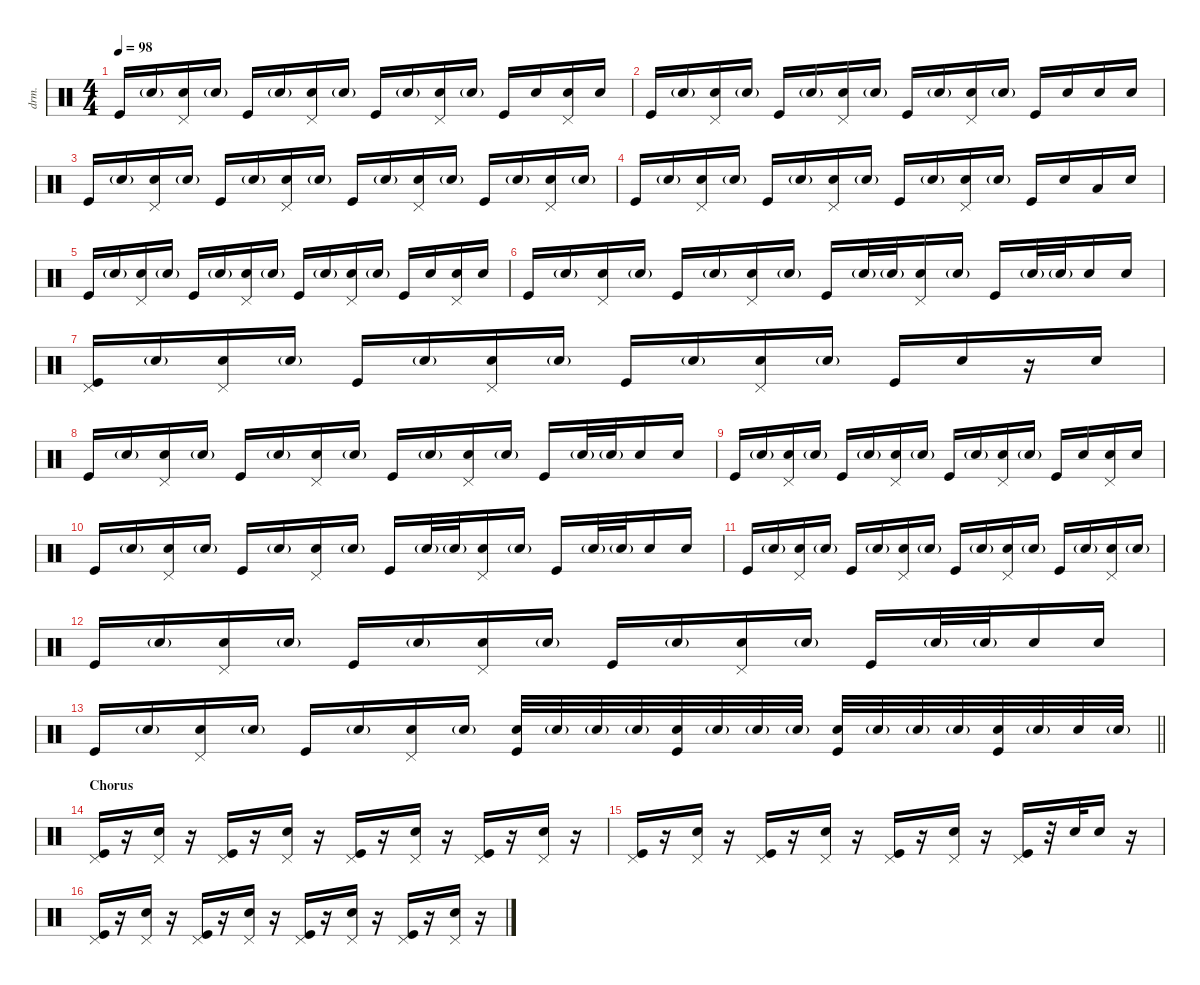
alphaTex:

\defaultSystemsLayout 4
\hideDynamics
\bracketExtendMode nobrackets
\otherSystemsTrackNameOrientation horizontal
\track ("Duris Maxwell" "drm.") {instrument percussion}
\staff {score}
\articulation defaults
\ts (4 4)
\tempo 98
\clef neutral
\ks c "Kick (hit)".16{dy f beam Up} "Snare (hit) 2"{g}.16{beam Up}
("Pedal Hi-Hat (hit)" "Snare (hit) 2").16{beam Up} "Snare (hit) 2"{g}.16{beam Up} "Kick (hit)".16{beam Up} "Snare (hit) 2"{g}.16{beam Up} ("Pedal Hi-Hat (hit)" "Snare (hit) 2").16{beam Up} "Snare (hit) 2"{g}.16{beam Up} "Kick (hit)".16{beam Up} "Snare (hit) 2"{g}.16{beam Up} ("Pedal Hi-Hat (hit)" "Snare (hit) 2").16{beam Up} "Snare (hit) 2"{g}.16{beam Up} "Kick (hit)".16{beam Up} "Snare (hit) 2".16{beam Up} ("Pedal Hi-Hat (hit)" "Snare (hit) 2").16{beam Up} "Snare (hit) 2".16{beam Up} |
"Kick (hit)".16{beam Up} "Snare (hit) 2"{g}.16{beam Up} ("Pedal Hi-Hat (hit)" "Snare (hit) 2").16{beam Up} "Snare (hit) 2"{g}.16{beam Up} "Kick (hit)".16{beam Up} "Snare (hit) 2"{g}.16{beam Up} ("Pedal Hi-Hat (hit)" "Snare (hit) 2").16{beam Up} "Snare (hit) 2"{g}.16{beam Up} "Kick (hit)".16{beam Up} "Snare (hit) 2"{g}.16{beam Up} ("Pedal Hi-Hat (hit)" "Snare (hit) 2").16{beam Up} "Snare (hit) 2"{g}.16{beam Up} "Kick (hit)".16{beam Up} "Snare (hit) 2".16{beam Up} "Snare (hit) 2".16{beam Up} "Snare (hit) 2".16{beam Up} |
"Kick (hit)".16{beam Up} "Snare (hit) 2"{g}.16{beam Up} ("Pedal Hi-Hat (hit)" "Snare (hit) 2").16{beam Up} "Snare (hit) 2"{g}.16{beam Up} "Kick (hit)".16{beam Up} "Snare (hit) 2"{g}.16{beam Up} ("Pedal Hi-Hat (hit)" "Snare (hit) 2").16{beam Up} "Snare (hit) 2"{g}.16{beam Up} "Kick (hit)".16{beam Up} "Snare (hit) 2"{g}.16{beam Up} ("Pedal Hi-Hat (hit)" "Snare (hit) 2").16{beam Up} "Snare (hit) 2"{g}.16{beam Up} "Kick (hit)".16{beam Up} "Snare (hit) 2"{g}.16{beam Up} ("Pedal Hi-Hat (hit)" "Snare (hit) 2").16{beam Up} "Snare (hit) 2"{g}.16{beam Up} |
"Kick (hit)".16{beam Up} "Snare (hit) 2"{g}.16{beam Up} ("Pedal Hi-Hat (hit)" "Snare (hit) 2").16{beam Up} "Snare (hit) 2"{g}.16{beam Up} "Kick (hit)".16{beam Up} "Snare (hit) 2"{g}.16{beam Up} ("Pedal Hi-Hat (hit)" "Snare (hit) 2").16{beam Up} "Snare (hit) 2"{g}.16{beam Up} "Kick (hit)".16{beam Up} "Snare (hit) 2"{g}.16{beam Up} ("Pedal Hi-Hat (hit)" "Snare (hit) 2").16{beam Up} "Snare (hit) 2"{g}.16{beam Up} "Kick (hit)".16{beam Up} "Snare (hit) 2".16{beam Up} "Low Tom (hit)".16{beam Up} "Snare (hit) 2".16{beam Up} |
"Kick (hit)".16{beam Up} "Snare (hit) 2"{g}.16{beam Up} ("Pedal Hi-Hat (hit)" "Snare (hit) 2").16{beam Up} "Snare (hit) 2"{g}.16{beam Up} "Kick (hit)".16{beam Up} "Snare (hit) 2"{g}.16{beam Up} ("Pedal Hi-Hat (hit)" "Snare (hit) 2").16{beam Up} "Snare (hit) 2"{g}.16{beam Up} "Kick (hit)".16{beam Up} "Snare (hit) 2"{g}.16{beam Up} ("Pedal Hi-Hat (hit)" "Snare (hit) 2").16{beam Up} "Snare (hit) 2"{g}.16{beam Up} "Kick (hit)".16{beam Up} "Snare (hit) 2".16{beam Up} ("Pedal Hi-Hat (hit)" "Snare (hit) 2").16{beam Up} "Snare (hit) 2".16{beam Up} |
"Kick (hit)".16{beam Up} "Snare (hit) 2"{g}.16{beam Up} ("Pedal Hi-Hat (hit)" "Snare (hit) 2").16{beam Up} "Snare (hit) 2"{g}.16{beam Up} "Kick (hit)".16{beam Up} "Snare (hit) 2"{g}.16{beam Up} ("Pedal Hi-Hat (hit)" "Snare (hit) 2").16{beam Up} "Snare (hit) 2"{g}.16{beam Up} "Kick (hit)".16{beam Up} "Snare (hit) 2"{g}.32{beam Up} "Snare (hit) 2"{g}.32{beam Up} ("Pedal Hi-Hat (hit)" "Snare (hit) 2").16{beam Up} "Snare (hit) 2"{g}.16{beam Up} "Kick (hit)".16{beam Up} "Snare (hit) 2"{g}.32{beam Up} "Snare (hit) 2"{g}.32{beam Up} "Snare (hit) 2".16{beam Up} "Snare (hit) 2".16{beam Up} |
("Pedal Hi-Hat (hit)" "Kick (hit)").16{beam Up} "Snare (hit) 2"{g}.16{beam Up} ("Pedal Hi-Hat (hit)" "Snare (hit) 2").16{beam Up} "Snare (hit) 2"{g}.16{beam Up} "Kick (hit)".16{beam Up} "Snare (hit) 2"{g}.16{beam Up} ("Pedal Hi-Hat (hit)" "Snare (hit) 2").16{beam Up} "Snare (hit) 2"{g}.16{beam Up} "Kick (hit)".16{beam Up} "Snare (hit) 2"{g}.16{beam Up} ("Pedal Hi-Hat (hit)" "Snare (hit) 2").16{beam Up} "Snare (hit) 2"{g}.16{beam Up} "Kick (hit)".16{beam Up} "Snare (hit) 2".16{beam Up} r.16{beam Up} "Snare (hit) 2".16{beam Up} |
"Kick (hit)".16{beam Up} "Snare (hit) 2"{g}.16{beam Up} ("Pedal Hi-Hat (hit)" "Snare (hit) 2").16{beam Up} "Snare (hit) 2"{g}.16{beam Up} "Kick (hit)".16{beam Up} "Snare (hit) 2"{g}.16{beam Up} ("Pedal Hi-Hat (hit)" "Snare (hit) 2").16{beam Up} "Snare (hit) 2"{g}.16{beam Up} "Kick (hit)".16{beam Up} "Snare (hit) 2"{g}.16{beam Up} ("Pedal Hi-Hat (hit)" "Snare (hit) 2").16{beam Up} "Snare (hit) 2"{g}.16{beam Up} "Kick (hit)".16{beam Up} "Snare (hit) 2"{g}.32{beam Up} "Snare (hit) 2"{g}.32{beam Up} "Snare (hit) 2".16{beam Up} "Snare (hit) 2".16{beam Up} |
"Kick (hit)".16{beam Up} "Snare (hit) 2"{g}.16{beam Up} ("Pedal Hi-Hat (hit)" "Snare (hit) 2").16{beam Up} "Snare (hit) 2"{g}.16{beam Up} "Kick (hit)".16{beam Up} "Snare (hit) 2"{g}.16{beam Up} ("Pedal Hi-Hat (hit)" "Snare (hit) 2").16{beam Up} "Snare (hit) 2"{g}.16{beam Up} "Kick (hit)".16{beam Up} "Snare (hit) 2"{g}.16{beam Up} ("Pedal Hi-Hat (hit)" "Snare (hit) 2").16{beam Up} "Snare (hit) 2"{g}.16{beam Up} "Kick (hit)".16{beam Up} "Snare (hit) 2".16{beam Up} ("Pedal Hi-Hat (hit)" "Snare (hit) 2").16{beam Up} "Snare (hit) 2".16{beam Up} |
"Kick (hit)".16{beam Up} "Snare (hit) 2"{g}.16{beam Up} ("Pedal Hi-Hat (hit)" "Snare (hit) 2").16{beam Up} "Snare (hit) 2"{g}.16{beam Up} "Kick (hit)".16{beam Up} "Snare (hit) 2"{g}.16{beam Up} ("Pedal Hi-Hat (hit)" "Snare (hit) 2").16{beam Up} "Snare (hit) 2"{g}.16{beam Up} "Kick (hit)".16{beam Up} "Snare (hit) 2"{g}.32{beam Up} "Snare (hit) 2"{g}.32{beam Up} ("Pedal Hi-Hat (hit)" "Snare (hit) 2").16{beam Up} "Snare (hit) 2"{g}.16{beam Up} "Kick (hit)".16{beam Up} "Snare (hit) 2"{g}.32{beam Up} "Snare (hit) 2"{g}.32{beam Up} "Snare (hit) 2".16{beam Up} "Snare (hit) 2".16{beam Up} |
"Kick (hit)".16{beam Up} "Snare (hit) 2"{g}.16{beam Up} ("Pedal Hi-Hat (hit)" "Snare (hit) 2").16{beam Up} "Snare (hit) 2"{g}.16{beam Up} "Kick (hit)".16{beam Up} "Snare (hit) 2"{g}.16{beam Up} ("Pedal Hi-Hat (hit)" "Snare (hit) 2").16{beam Up} "Snare (hit) 2"{g}.16{beam Up} "Kick (hit)".16{beam Up} "Snare (hit) 2"{g}.16{beam Up} ("Pedal Hi-Hat (hit)" "Snare (hit) 2").16{beam Up} "Snare (hit) 2"{g}.16{beam Up} "Kick (hit)".16{beam Up} "Snare (hit) 2"{g}.16{beam Up} ("Pedal Hi-Hat (hit)" "Snare (hit) 2").16{beam Up} "Snare (hit) 2"{g}.16{beam Up} |
"Kick (hit)".16{beam Up} "Snare (hit) 2"{g}.16{beam Up} ("Pedal Hi-Hat (hit)" "Snare (hit) 2").16{beam Up} "Snare (hit) 2"{g}.16{beam Up} "Kick (hit)".16{beam Up} "Snare (hit) 2"{g}.16{beam Up} ("Pedal Hi-Hat (hit)" "Snare (hit) 2").16{beam Up} "Snare (hit) 2"{g}.16{beam Up} "Kick (hit)".16{beam Up} "Snare (hit) 2"{g}.16{beam Up} ("Pedal Hi-Hat (hit)" "Snare (hit) 2").16{beam Up} "Snare (hit) 2"{g}.16{beam Up} "Kick (hit)".16{beam Up} "Snare (hit) 2"{g}.32{beam Up} "Snare (hit) 2"{g}.32{beam Up} "Snare (hit) 2".16{beam Up} "Snare (hit) 2".16{beam Up} |
\barLineRight lightlight "Kick (hit)".16{beam Up} "Snare (hit) 2"{g}.16{beam Up}
("Pedal Hi-Hat (hit)" "Snare (hit) 2").16{beam Up} "Snare (hit) 2"{g}.16{beam Up} "Kick (hit)".16{beam Up} "Snare (hit) 2"{g}.16{beam Up} ("Pedal Hi-Hat (hit)" "Snare (hit) 2").16{beam Up} "Snare (hit) 2"{g}.16{beam Up} ("Snare (hit) 2" "Kick (hit)").32{beam Up} "Snare (hit) 2"{g}.32{beam Up} "Snare (hit) 2"{g}.32{beam Up} "Snare (hit) 2"{g}.32{beam Up} ("Snare (hit) 2" "Kick (hit)").32{beam Up} "Snare (hit) 2"{g}.32{beam Up} "Snare (hit) 2"{g}.32{beam Up} "Snare (hit) 2"{g}.32{beam Up} ("Snare (hit) 2" "Kick (hit)").32{beam Up} "Snare (hit) 2"{g}.32{beam Up} "Snare (hit) 2"{g}.32{beam Up} "Snare (hit) 2"{g}.32{beam Up} ("Snare (hit) 2" "Kick (hit)").32{beam Up} "Snare (hit) 2"{g}.32{beam Up} "Snare (hit) 2".32{beam Up} "Snare (hit) 2"{g}.32{beam Up} |
\section ("" "Chorus")
("Pedal Hi-Hat (hit)" "Kick (hit)").16{beam Up} r.16{beam Up} ("Pedal Hi-Hat (hit)" "Snare (hit) 2").16{beam Up} r.16{beam Up} ("Pedal Hi-Hat (hit)" "Kick (hit)").16{beam Up} r.16{beam Up} ("Pedal Hi-Hat (hit)" "Snare (hit) 2").16{beam Up} r.16{beam Up} ("Pedal Hi-Hat (hit)" "Kick (hit)").16{beam Up} r.16{beam Up} ("Pedal Hi-Hat (hit)" "Snare (hit) 2").16{beam Up} r.16{beam Up} ("Pedal Hi-Hat (hit)" "Kick (hit)").16{beam Up} r.16{beam Up} ("Pedal Hi-Hat (hit)" "Snare (hit) 2").16{beam Up} r.16{beam Up} |
("Pedal Hi-Hat (hit)" "Kick (hit)").16{beam Up} r.16{beam Up} ("Pedal Hi-Hat (hit)" "Snare (hit) 2").16{beam Up} r.16{beam Up} ("Pedal Hi-Hat (hit)" "Kick (hit)").16{beam Up} r.16{beam Up} ("Pedal Hi-Hat (hit)" "Snare (hit) 2").16{beam Up} r.16{beam Up} ("Pedal Hi-Hat (hit)" "Kick (hit)").16{beam Up} r.16{beam Up} ("Pedal Hi-Hat (hit)" "Snare (hit) 2").16{beam Up} r.16{beam Up} ("Pedal Hi-Hat (hit)" "Kick (hit)").16{beam Up} r.32{beam Up} "Snare (hit) 2".32{beam Up} "Snare (hit) 2".16{beam Up} r.16{beam Up} |
("Pedal Hi-Hat (hit)" "Kick (hit)").16{beam Up} r.16{beam Up} ("Pedal Hi-Hat (hit)" "Snare (hit) 2").16{beam Up} r.16{beam Up} ("Pedal Hi-Hat (hit)" "Kick (hit)").16{beam Up} r.16{beam Up} ("Pedal Hi-Hat (hit)" "Snare (hit) 2").16{beam Up} r.16{beam Up} ("Pedal Hi-Hat (hit)" "Kick (hit)").16{beam Up} r.16{beam Up} ("Pedal Hi-Hat (hit)" "Snare (hit) 2").16{beam Up} r.16{beam Up} ("Pedal Hi-Hat (hit)" "Kick (hit)").16{beam Up} r.16{beam Up} ("Pedal Hi-Hat (hit)" "Snare (hit) 2").16{beam Up} r.16{beam Up}
